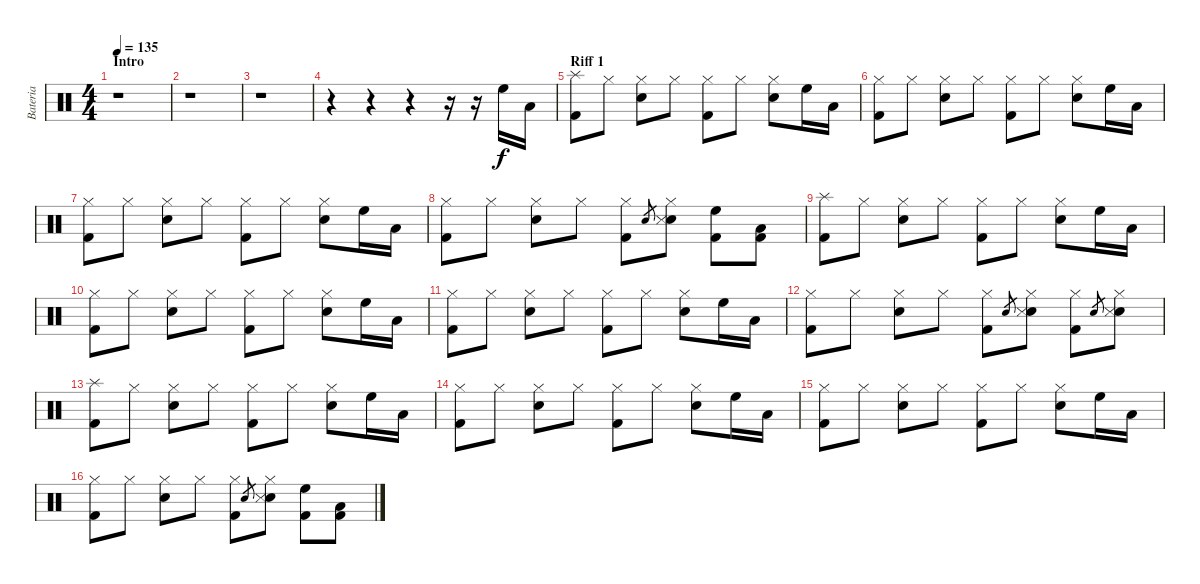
\track ("Bateria" "Bateria") {instrument percussion}
\staff {score}
\articulation defaults
\ts (4 4)
\section ("" "Intro")
\tempo 135
\clef neutral
\ks c
r.1{dy f} |
r.1 |
r.1 |
r.4 r.4 r.4 r.16 r.16 "High Floor Tom (hit)".16 "Low Tom (hit)".16 |
\section ("" "Riff 1")
("Splash (hit)" "Kick (hit) 2").8 "Hi-Hat (closed)".8 ("Hi-Hat (closed)" "Snare (hit) 2").8 "Hi-Hat (closed)".8 ("Hi-Hat (closed)" "Kick (hit) 2").8 "Hi-Hat (closed)".8 ("Hi-Hat (closed)" "Snare (hit) 2").8 "High Floor Tom (hit)".16 "Low Tom (hit)".16 |
("Hi-Hat (closed)" "Kick (hit) 2").8 "Hi-Hat (closed)".8 ("Hi-Hat (closed)" "Snare (hit) 2").8 "Hi-Hat (closed)".8 ("Hi-Hat (closed)" "Kick (hit) 2").8 "Hi-Hat (closed)".8 ("Hi-Hat (closed)" "Snare (hit) 2").8 "High Floor Tom (hit)".16 "Low Tom (hit)".16 |
("Hi-Hat (closed)" "Kick (hit) 2").8 "Hi-Hat (closed)".8 ("Hi-Hat (closed)" "Snare (hit) 2").8 "Hi-Hat (closed)".8 ("Hi-Hat (closed)" "Kick (hit) 2").8 "Hi-Hat (closed)".8 ("Hi-Hat (closed)" "Snare (hit) 2").8 "High Floor Tom (hit)".16 "Low Tom (hit)".16 |
("Hi-Hat (closed)" "Kick (hit) 2").8 "Hi-Hat (closed)".8 ("Hi-Hat (closed)" "Snare (hit) 2").8 "Hi-Hat (closed)".8 ("Hi-Hat (closed)" "Kick (hit) 2").8 "Snare (hit) 2".8{gr} ("Hi-Hat (closed)" "Snare (hit) 2" "Snare (side stick) 3").8 ("High Floor Tom (hit)" "Kick (hit) 2").8 ("Low Tom (hit)" "Kick (hit) 2").8 |
("Splash (hit)" "Kick (hit) 2").8 "Hi-Hat (closed)".8 ("Hi-Hat (closed)" "Snare (hit) 2").8 "Hi-Hat (closed)".8 ("Hi-Hat (closed)" "Kick (hit) 2").8 "Hi-Hat (closed)".8 ("Hi-Hat (closed)" "Snare (hit) 2").8 "High Floor Tom (hit)".16 "Low Tom (hit)".16 |
("Hi-Hat (closed)" "Kick (hit) 2").8 "Hi-Hat (closed)".8 ("Hi-Hat (closed)" "Snare (hit) 2").8 "Hi-Hat (closed)".8 ("Hi-Hat (closed)" "Kick (hit) 2").8 "Hi-Hat (closed)".8 ("Hi-Hat (closed)" "Snare (hit) 2").8 "High Floor Tom (hit)".16 "Low Tom (hit)".16 |
("Hi-Hat (closed)" "Kick (hit) 2").8 "Hi-Hat (closed)".8 ("Hi-Hat (closed)" "Snare (hit) 2").8 "Hi-Hat (closed)".8 ("Hi-Hat (closed)" "Kick (hit) 2").8 "Hi-Hat (closed)".8 ("Hi-Hat (closed)" "Snare (hit) 2").8 "High Floor Tom (hit)".16 "Low Tom (hit)".16 |
("Hi-Hat (closed)" "Kick (hit) 2").8 "Hi-Hat (closed)".8 ("Hi-Hat (closed)" "Snare (hit) 2").8 "Hi-Hat (closed)".8 ("Hi-Hat (closed)" "Kick (hit) 2").8 "Snare (hit) 2".8{gr} ("Hi-Hat (closed)" "Snare (hit) 2" "Snare (side stick) 3").8 ("Hi-Hat (closed)" "Kick (hit) 2").8 "Snare (hit) 2".8{gr} ("Hi-Hat (closed)" "Snare (hit) 2" "Snare (side stick) 3").8 |
("Splash (hit)" "Kick (hit) 2").8 "Hi-Hat (closed)".8 ("Hi-Hat (closed)" "Snare (hit) 2").8 "Hi-Hat (closed)".8 ("Hi-Hat (closed)" "Kick (hit) 2").8 "Hi-Hat (closed)".8 ("Hi-Hat (closed)" "Snare (hit) 2").8 "High Floor Tom (hit)".16 "Low Tom (hit)".16 |
("Hi-Hat (closed)" "Kick (hit) 2").8 "Hi-Hat (closed)".8 ("Hi-Hat (closed)" "Snare (hit) 2").8 "Hi-Hat (closed)".8 ("Hi-Hat (closed)" "Kick (hit) 2").8 "Hi-Hat (closed)".8 ("Hi-Hat (closed)" "Snare (hit) 2").8 "High Floor Tom (hit)".16 "Low Tom (hit)".16 |
("Hi-Hat (closed)" "Kick (hit) 2").8 "Hi-Hat (closed)".8 ("Hi-Hat (closed)" "Snare (hit) 2").8 "Hi-Hat (closed)".8 ("Hi-Hat (closed)" "Kick (hit) 2").8 "Hi-Hat (closed)".8 ("Hi-Hat (closed)" "Snare (hit) 2").8 "High Floor Tom (hit)".16 "Low Tom (hit)".16 |
("Hi-Hat (closed)" "Kick (hit) 2").8 "Hi-Hat (closed)".8 ("Hi-Hat (closed)" "Snare (hit) 2").8 "Hi-Hat (closed)".8 ("Hi-Hat (closed)" "Kick (hit) 2").8 "Snare (hit) 2".8{gr} ("Hi-Hat (closed)" "Snare (hit) 2" "Snare (side stick) 3").8 ("High Floor Tom (hit)" "Kick (hit) 2").8 ("Low Tom (hit)" "Kick (hit) 2").8
